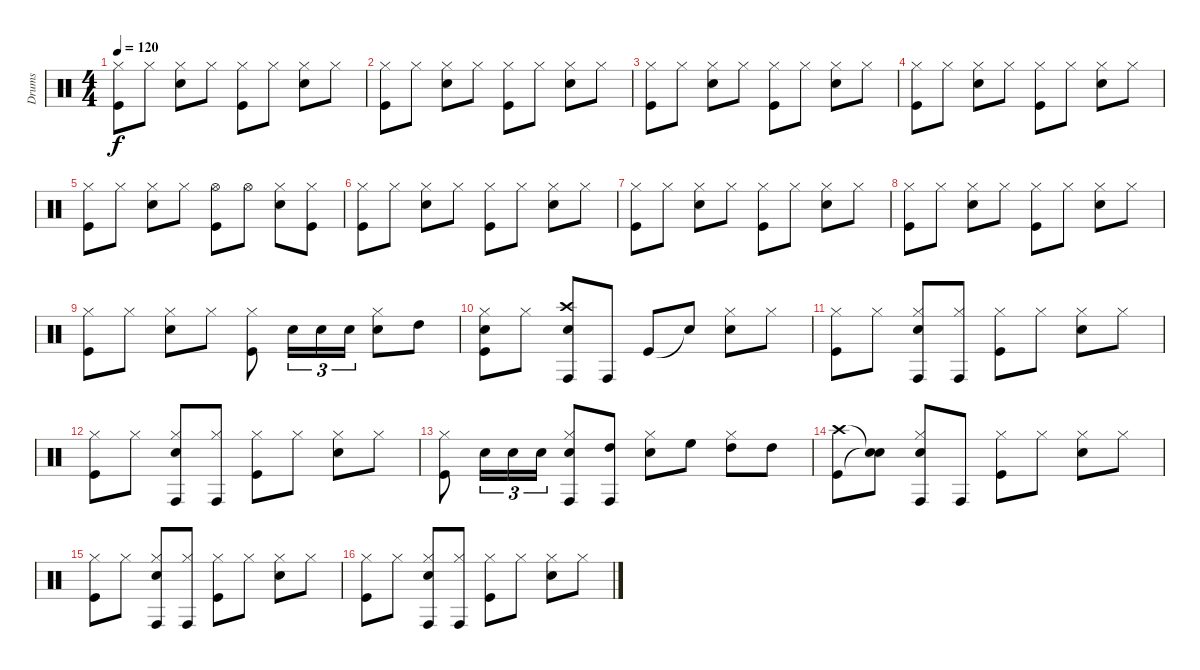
\track ("Drums" "Drums") {instrument percussion}
\staff {score}
\articulation defaults
\ts (4 4)
\tempo 120
\clef neutral
\ks c
("Hi-Hat (closed)" "Kick (hit)").8{dy f} "Hi-Hat (closed)".8 ("Hi-Hat (closed)" "Snare (hit) 2").8 "Hi-Hat (closed)".8 ("Hi-Hat (closed)" "Kick (hit)").8 "Hi-Hat (closed)".8 ("Hi-Hat (closed)" "Snare (hit) 2").8 "Hi-Hat (closed)".8 |
("Hi-Hat (closed)" "Kick (hit)").8 "Hi-Hat (closed)".8 ("Hi-Hat (closed)" "Snare (hit) 2").8 "Hi-Hat (closed)".8 ("Hi-Hat (closed)" "Kick (hit)").8 "Hi-Hat (closed)".8 ("Hi-Hat (closed)" "Snare (hit) 2").8 "Hi-Hat (closed)".8 |
("Hi-Hat (closed)" "Kick (hit)").8 "Hi-Hat (closed)".8 ("Hi-Hat (closed)" "Snare (hit) 2").8 "Hi-Hat (closed)".8 ("Hi-Hat (closed)" "Kick (hit)").8 "Hi-Hat (closed)".8 ("Hi-Hat (closed)" "Snare (hit) 2").8 "Hi-Hat (closed)".8 |
("Hi-Hat (closed)" "Kick (hit)").8 "Hi-Hat (closed)".8 ("Hi-Hat (closed)" "Snare (hit) 2").8 "Hi-Hat (closed)".8 ("Hi-Hat (closed)" "Kick (hit)").8 "Hi-Hat (closed)".8 ("Hi-Hat (closed)" "Snare (hit) 2").8 "Hi-Hat (closed)".8 |
("Hi-Hat (closed)" "Kick (hit)").8 "Hi-Hat (closed)".8 ("Hi-Hat (closed)" "Snare (hit) 2").8 "Hi-Hat (closed)".8 ("Hi-Hat (open)" "Kick (hit)").8 "Hi-Hat (open)".8 ("Hi-Hat (closed)" "Snare (hit) 2").8 ("Hi-Hat (closed)" "Kick (hit)").8 |
("Hi-Hat (closed)" "Kick (hit)").8 "Hi-Hat (closed)".8 ("Hi-Hat (closed)" "Snare (hit) 2").8 "Hi-Hat (closed)".8 ("Hi-Hat (closed)" "Kick (hit)").8 "Hi-Hat (closed)".8 ("Hi-Hat (closed)" "Snare (hit) 2").8 "Hi-Hat (closed)".8 |
("Hi-Hat (closed)" "Kick (hit)").8 "Hi-Hat (closed)".8 ("Hi-Hat (closed)" "Snare (hit) 2").8 "Hi-Hat (closed)".8 ("Hi-Hat (closed)" "Kick (hit)").8 "Hi-Hat (closed)".8 ("Hi-Hat (closed)" "Snare (hit) 2").8 "Hi-Hat (closed)".8 |
("Hi-Hat (closed)" "Kick (hit)").8 "Hi-Hat (closed)".8 ("Hi-Hat (closed)" "Snare (hit) 2").8 "Hi-Hat (closed)".8 ("Hi-Hat (closed)" "Kick (hit)").8 "Hi-Hat (closed)".8 ("Hi-Hat (closed)" "Snare (hit) 2").8 "Hi-Hat (closed)".8 |
("Hi-Hat (closed)" "Kick (hit)").8 "Hi-Hat (closed)".8 ("Hi-Hat (closed)" "Snare (hit) 2").8 "Hi-Hat (closed)".8 ("Hi-Hat (closed)" "Kick (hit)").8 "Snare (hit) 2".16{tu (3 2)} "Snare (hit) 2".16{tu (3 2)} "Snare (hit) 2".16{tu (3 2)} ("Hi-Hat (closed)" "Snare (hit) 2").8 "High Tom (hit)".8 |
("Hi-Hat (closed)" "Snare (hit) 2" "Kick (hit)").8 "Hi-Hat (closed)".8 ("Crash high (hit)" "Conga high (hit)" "Snare (hit) 2").8 "Conga high (hit)".8 "Kick (hit)".8 "Snare (hit)"{t}.8 ("Hi-Hat (closed)" "Snare (hit) 2").8 "Hi-Hat (closed)".8 |
("Hi-Hat (closed)" "Kick (hit)").8 "Hi-Hat (closed)".8 ("Hi-Hat (closed)" "Conga high (hit)" "Snare (hit) 2").8 ("Hi-Hat (closed)" "Conga high (hit)").8 ("Hi-Hat (closed)" "Kick (hit)").8 "Hi-Hat (closed)".8 ("Hi-Hat (closed)" "Snare (hit) 2").8 "Hi-Hat (closed)".8 |
("Hi-Hat (closed)" "Kick (hit)").8 "Hi-Hat (closed)".8 ("Hi-Hat (closed)" "Conga high (hit)" "Snare (hit) 2").8 ("Hi-Hat (closed)" "Conga high (hit)").8 ("Hi-Hat (closed)" "Kick (hit)").8 "Hi-Hat (closed)".8 ("Hi-Hat (closed)" "Snare (hit) 2").8 "Hi-Hat (closed)".8 |
("Hi-Hat (closed)" "Kick (hit)").8 "Snare (hit) 2".16{tu (3 2)} "Snare (hit) 2".16{tu (3 2)} "Snare (hit) 2".16{tu (3 2)} ("Hi-Hat (closed)" "Conga high (hit)" "Snare (hit) 2").8 ("Conga high (hit)" "High Tom (hit)").8 ("Hi-Hat (closed)" "Snare (hit) 2").8 "High Floor Tom (hit)".8 ("Hi-Hat (closed)" "High Tom (hit)").8 "High Tom (hit)".8 |
("Crash high (hit)" "Kick (hit)").8 ("Snare (hit)"{t} "Snare (hit)"{t}).8 ("Hi-Hat (closed)" "Conga high (hit)" "Snare (hit) 2").8 "Conga high (hit)".8 ("Hi-Hat (closed)" "Kick (hit)").8 "Hi-Hat (closed)".8 ("Hi-Hat (closed)" "Snare (hit) 2").8 "Hi-Hat (closed)".8 |
("Hi-Hat (closed)" "Kick (hit)").8 "Hi-Hat (closed)".8 ("Hi-Hat (closed)" "Conga high (hit)" "Snare (hit) 2").8 ("Hi-Hat (closed)" "Conga high (hit)").8 ("Hi-Hat (closed)" "Kick (hit)").8 "Hi-Hat (closed)".8 ("Hi-Hat (closed)" "Snare (hit) 2").8 "Hi-Hat (closed)".8 |
("Hi-Hat (closed)" "Kick (hit)").8 "Hi-Hat (closed)".8 ("Hi-Hat (closed)" "Conga high (hit)" "Snare (hit) 2").8 ("Hi-Hat (closed)" "Conga high (hit)").8 ("Hi-Hat (closed)" "Kick (hit)").8 "Hi-Hat (closed)".8 ("Hi-Hat (closed)" "Snare (hit) 2").8 "Hi-Hat (closed)".8
